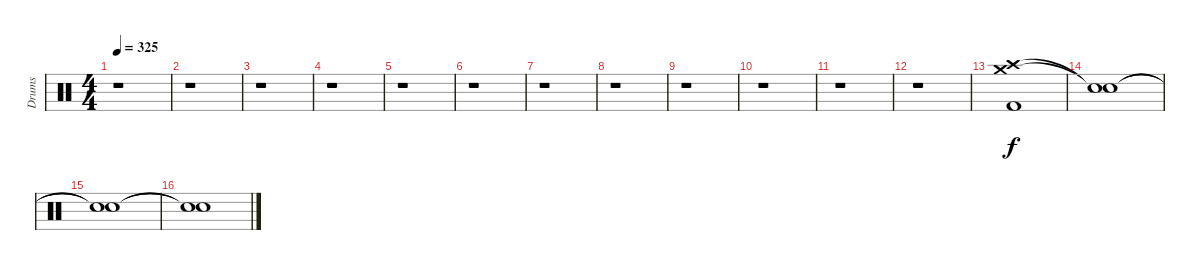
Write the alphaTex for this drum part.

\track ("Drums" "Drums") {instrument percussion}
\staff {score}
\articulation defaults
\ts (4 4)
\tempo 325
\clef neutral
\ks c
r.1{dy f} |
r.1 |
r.1 |
r.1 |
r.1 |
r.1 |
r.1 |
r.1 |
r.1 |
r.1 |
r.1 |
r.1 |
("Crash medium (hit)" "Crash high (hit)" "Kick (hit) 2").1 |
("Snare (hit)"{t} "Snare (hit)"{t}).1 |
("Snare (hit)"{t} "Snare (hit)"{t}).1 |
("Snare (hit)"{t} "Snare (hit)"{t}).1
